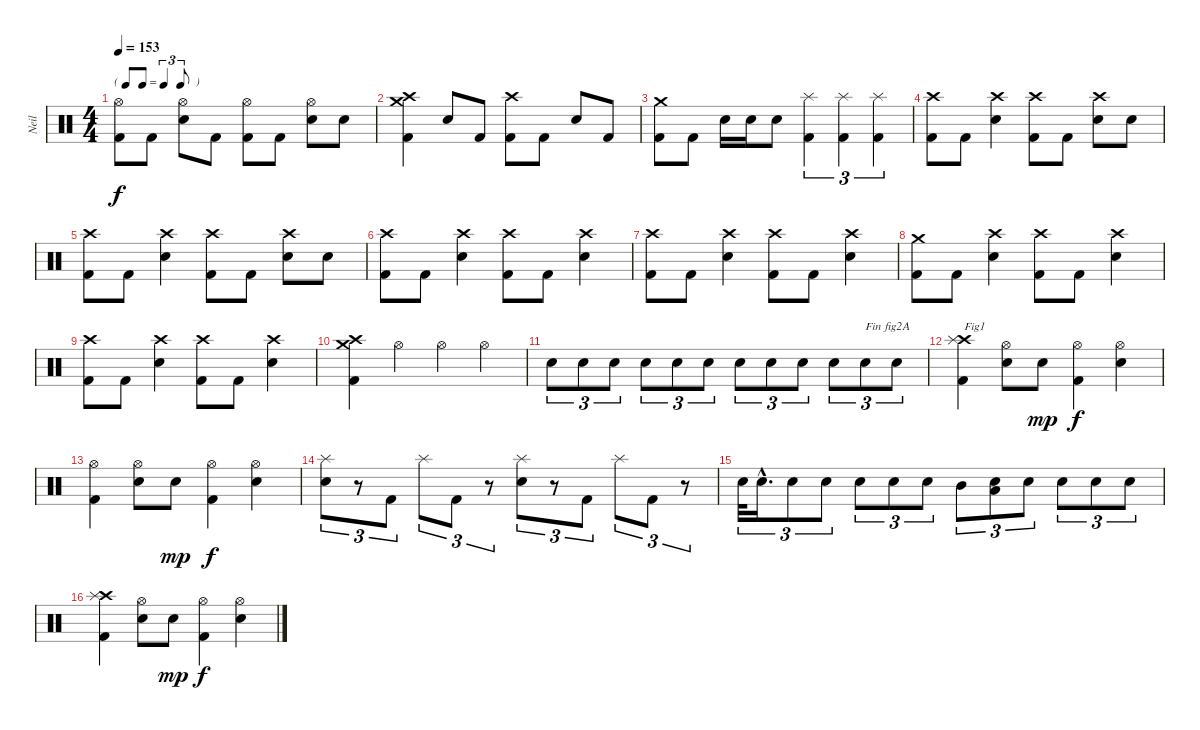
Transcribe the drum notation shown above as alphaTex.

\track ("Neil" "Neil") {instrument percussion}
\staff {score}
\articulation defaults
\ts (4 4)
\tf triplet8th
\tempo 153
\clef neutral
\ks c
("Kick (hit) 2" "Hi-Hat (open)").8{dy f} "Kick (hit) 2".8 ("Electric Snare (hit)" "Hi-Hat (open)").8 "Kick (hit) 2".8 ("Kick (hit) 2" "Hi-Hat (open)").8 "Kick (hit) 2".8 ("Electric Snare (hit)" "Hi-Hat (open)").8 "Electric Snare (hit)".8 |
("Kick (hit) 2" "Crash medium (hit)" "Crash high (hit)").4 "Electric Snare (hit)".8 "Kick (hit) 2".8 ("Kick (hit) 2" "Crash high (hit)").8 "Kick (hit) 2".8 "Electric Snare (hit)".8 "Kick (hit) 2".8 |
("Kick (hit) 2" "Crash medium (hit)").8 "Kick (hit) 2".8 "Electric Snare (hit)".16 "Electric Snare (hit)".16 "Electric Snare (hit)".8 ("Kick (hit) 2" "Splash (hit)").4{tu (3 2)} ("Kick (hit) 2" "Splash (hit)").4{tu (3 2)} ("Kick (hit) 2" "Splash (hit)").4{tu (3 2)} |
("Kick (hit) 2" "Crash high (hit)").8 "Kick (hit) 2".8 ("Electric Snare (hit)" "Crash high (hit)").4 ("Kick (hit) 2" "Crash high (hit)").8 "Kick (hit) 2".8 ("Electric Snare (hit)" "Crash high (hit)").8 "Electric Snare (hit)".8 |
("Kick (hit) 2" "Crash high (hit)").8 "Kick (hit) 2".8 ("Electric Snare (hit)" "Crash high (hit)").4 ("Kick (hit) 2" "Crash high (hit)").8 "Kick (hit) 2".8 ("Electric Snare (hit)" "Crash high (hit)").8 "Electric Snare (hit)".8 |
("Kick (hit) 2" "Crash high (hit)").8 "Kick (hit) 2".8 ("Electric Snare (hit)" "Crash high (hit)").4 ("Kick (hit) 2" "Crash high (hit)").8 "Kick (hit) 2".8 ("Electric Snare (hit)" "Crash high (hit)").4 |
("Kick (hit) 2" "Crash high (hit)").8 "Kick (hit) 2".8 ("Electric Snare (hit)" "Crash high (hit)").4 ("Kick (hit) 2" "Crash high (hit)").8 "Kick (hit) 2".8 ("Electric Snare (hit)" "Crash high (hit)").4 |
("Kick (hit) 2" "Crash medium (hit)").8 "Kick (hit) 2".8 ("Electric Snare (hit)" "Crash high (hit)").4 ("Kick (hit) 2" "Crash high (hit)").8 "Kick (hit) 2".8 ("Electric Snare (hit)" "Crash high (hit)").4 |
("Kick (hit) 2" "Crash high (hit)").8 "Kick (hit) 2".8 ("Electric Snare (hit)" "Crash high (hit)").4 ("Kick (hit) 2" "Crash high (hit)").8 "Kick (hit) 2".8 ("Electric Snare (hit)" "Crash high (hit)").4 |
("Kick (hit) 2" "Crash medium (hit)" "Crash high (hit)").4 "Hi-Hat (open)".4 "Hi-Hat (open)".4 "Hi-Hat (open)".4 |
"Electric Snare (hit)".8{tu (3 2)} "Electric Snare (hit)".8{tu (3 2)} "Electric Snare (hit)".8{tu (3 2)} "Electric Snare (hit)".8{tu (3 2)} "Electric Snare (hit)".8{tu (3 2)} "Electric Snare (hit)".8{tu (3 2)} "Electric Snare (hit)".8{tu (3 2)} "Electric Snare (hit)".8{tu (3 2)} "Electric Snare (hit)".8{tu (3 2)} "Electric Snare (hit)".8{tu (3 2)} "Electric Snare (hit)".8{tu (3 2) txt "Fin fig2A"} "Electric Snare (hit)".8{tu (3 2)} |
("Kick (hit) 2" "Crash high (hit)" "Splash (hit)").4{txt "Fig1"} ("Electric Snare (hit)" "Hi-Hat (open)").8 "Electric Snare (hit)".8{dy mp} ("Kick (hit) 2" "Hi-Hat (open)").4{dy f} ("Electric Snare (hit)" "Hi-Hat (open)").4 |
("Kick (hit) 2" "Hi-Hat (open)").4 ("Electric Snare (hit)" "Hi-Hat (open)").8 "Electric Snare (hit)".8{dy mp} ("Kick (hit) 2" "Hi-Hat (open)").4{dy f} ("Electric Snare (hit)" "Hi-Hat (open)").4 |
("Electric Snare (hit)" "Splash (hit)").8{tu (3 2)} r.8{tu (3 2)} "Kick (hit) 2".8{tu (3 2)} "Splash (hit)".8{tu (3 2)} "Kick (hit) 2".8{tu (3 2)} r.8{tu (3 2)} ("Electric Snare (hit)" "Splash (hit)").8{tu (3 2)} r.8{tu (3 2)} "Kick (hit) 2".8{tu (3 2)} "Splash (hit)".8{tu (3 2)} "Kick (hit) 2".8{tu (3 2)} r.8{tu (3 2)} |
"Electric Snare (hit)".32{tu (3 2)} "Electric Snare (hit)"{hac}.16{d tu (3 2)} "Electric Snare (hit)".8{tu (3 2)} "Electric Snare (hit)".8{tu (3 2)} "Electric Snare (hit)".8{tu (3 2)} "Electric Snare (hit)".8{tu (3 2)} "Electric Snare (hit)".8{tu (3 2)} "Mid Tom (hit)".8{tu (3 2)} ("Electric Snare (hit)" "Low Tom (hit)").8{tu (3 2)} "Electric Snare (hit)".8{tu (3 2)} "Electric Snare (hit)".8{tu (3 2)} "Electric Snare (hit)".8{tu (3 2)} "Electric Snare (hit)".8{tu (3 2)} |
("Kick (hit) 2" "Crash high (hit)" "Splash (hit)").4 ("Electric Snare (hit)" "Hi-Hat (open)").8 "Electric Snare (hit)".8{dy mp} ("Kick (hit) 2" "Hi-Hat (open)").4{dy f} ("Electric Snare (hit)" "Hi-Hat (open)").4
